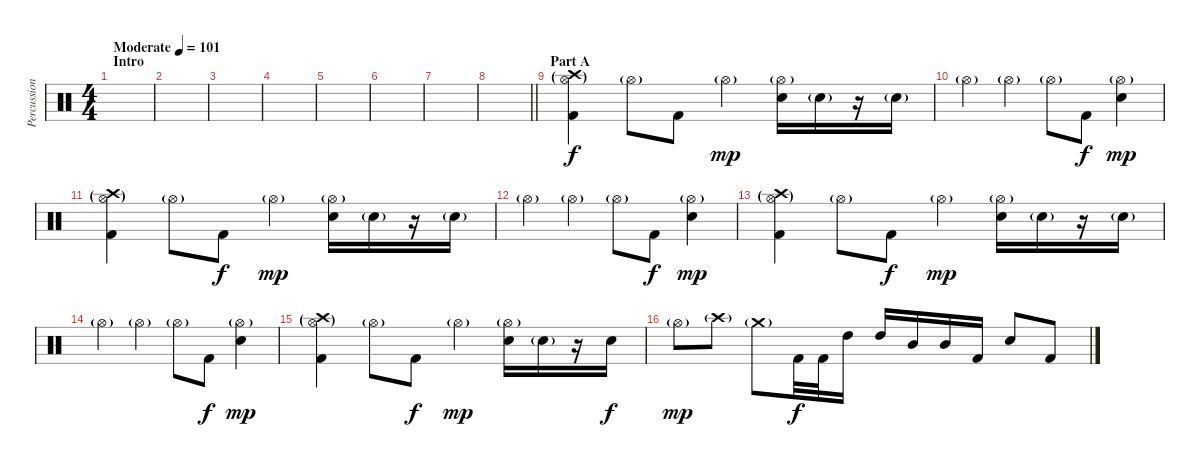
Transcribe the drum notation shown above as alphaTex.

\track ("Percussion" "Percussion") {instrument percussion}
\staff {score}
\articulation defaults
\ts (4 4)
\section ("" "Intro")
\tempo (101 "Moderate")
\clef neutral
\ks c
|
|
|
|
|
|
|
\barLineRight lightlight
|
\section ("" "Part A")
("Crash high (hit)"{g} "Hi-Hat (open)"{g} "Kick (hit) 2").4 "Hi-Hat (open)"{g}.8 "Kick (hit) 2".8{dy f} "Hi-Hat (open)"{g}.4{dy mp} ("Electric Snare (hit)" "Hi-Hat (open)"{g}).16 "Electric Snare (hit)"{g}.16 r.16 "Electric Snare (hit)"{g}.16 |
"Hi-Hat (open)"{g}.4 "Hi-Hat (open)"{g}.4 "Hi-Hat (open)"{g}.8 "Kick (hit) 2".8{dy f} ("Electric Snare (hit)" "Hi-Hat (open)"{g}).4{dy mp} |
("Crash high (hit)"{g} "Hi-Hat (open)"{g} "Kick (hit) 2").4 "Hi-Hat (open)"{g}.8 "Kick (hit) 2".8{dy f} "Hi-Hat (open)"{g}.4{dy mp} ("Electric Snare (hit)" "Hi-Hat (open)"{g}).16 "Electric Snare (hit)"{g}.16 r.16 "Electric Snare (hit)"{g}.16 |
"Hi-Hat (open)"{g}.4 "Hi-Hat (open)"{g}.4 "Hi-Hat (open)"{g}.8 "Kick (hit) 2".8{dy f} ("Electric Snare (hit)" "Hi-Hat (open)"{g}).4{dy mp} |
("Crash high (hit)"{g} "Hi-Hat (open)"{g} "Kick (hit) 2").4 "Hi-Hat (open)"{g}.8 "Kick (hit) 2".8{dy f} "Hi-Hat (open)"{g}.4{dy mp} ("Electric Snare (hit)" "Hi-Hat (open)"{g}).16 "Electric Snare (hit)"{g}.16 r.16 "Electric Snare (hit)"{g}.16 |
"Hi-Hat (open)"{g}.4 "Hi-Hat (open)"{g}.4 "Hi-Hat (open)"{g}.8 "Kick (hit) 2".8{dy f} ("Electric Snare (hit)" "Hi-Hat (open)"{g}).4{dy mp} |
("Crash high (hit)"{g} "Hi-Hat (open)"{g} "Kick (hit) 2").4 "Hi-Hat (open)"{g}.8 "Kick (hit) 2".8{dy f} "Hi-Hat (open)"{g}.4{dy mp} ("Electric Snare (hit)" "Hi-Hat (open)"{g}).16 "Electric Snare (hit)"{g}.16 r.16 "Electric Snare (hit)".16{dy f} |
"Hi-Hat (open)"{g}.8{dy mp} "Crash high (hit)"{g}.8 "Crash medium (hit)"{g}.8 "Kick (hit) 2".32{dy f} "Kick (hit) 2".32 "High Tom (hit)".16 "High Tom (hit)".16 "Mid Tom (hit)".16 "Mid Tom (hit)".16 "Kick (hit) 2".16 "Electric Snare (hit)".8 "Kick (hit) 2".8
